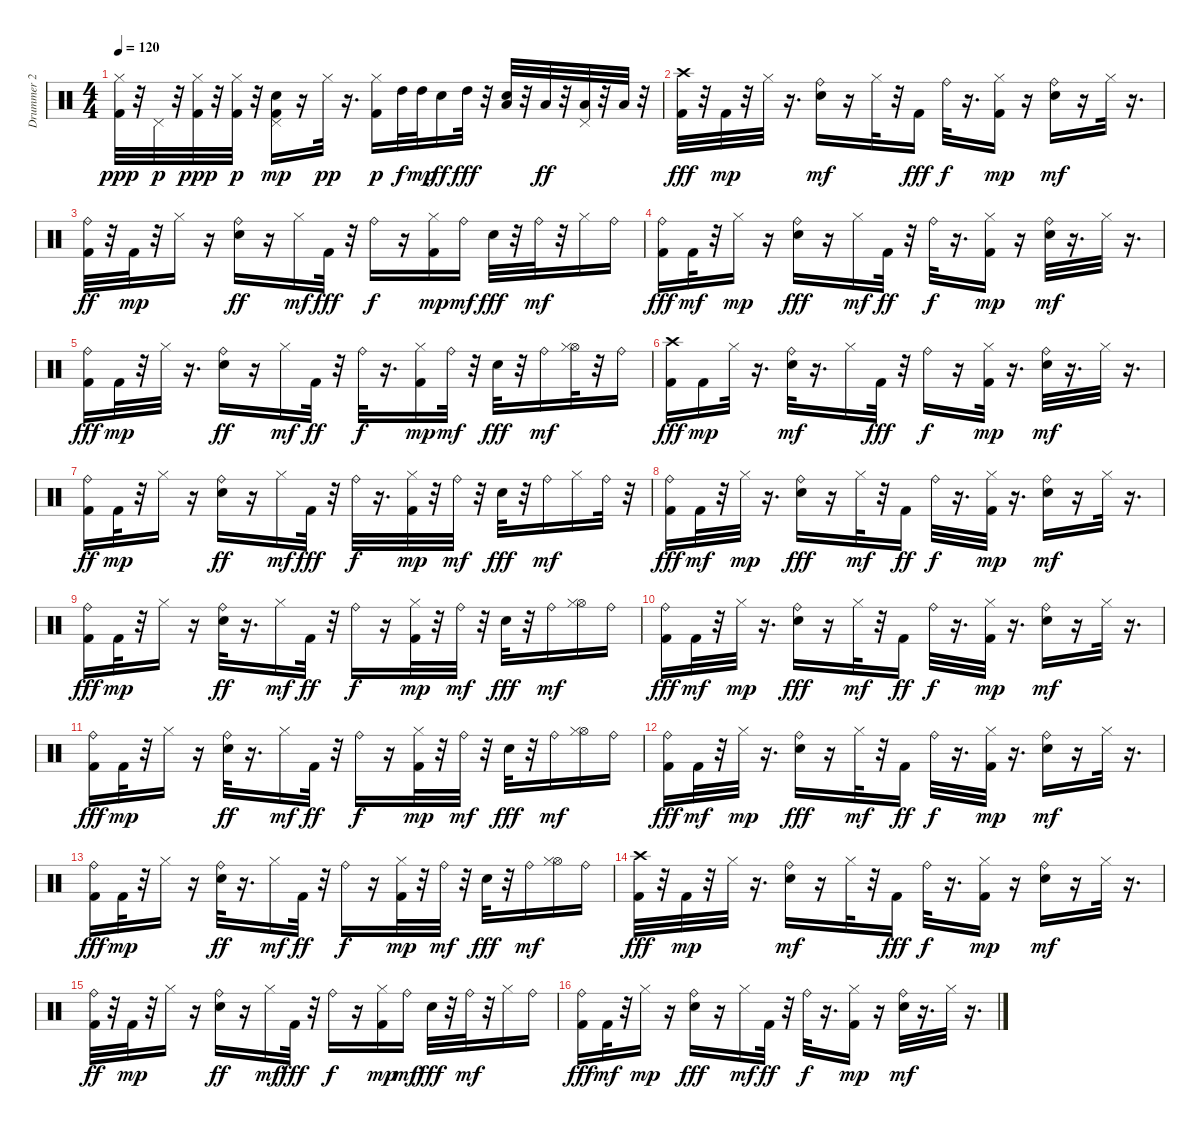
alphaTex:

\track ("Drummer 2" "Drummer 2") {instrument percussion}
\staff {score}
\articulation defaults
\ts (4 4)
\tempo 120
\clef neutral
\ks c
("Kick (hit) 2" "Hi-Hat (closed)").32{dy ppp} r.32 "Pedal Hi-Hat (hit)".32{dy p} r.32 ("Kick (hit) 2" "Hi-Hat (closed)").32{dy ppp} r.32 ("Kick (hit) 2" "Hi-Hat (closed)").32{dy p} r.32 ("Kick (hit) 2" "Snare (hit) 2" "Pedal Hi-Hat (hit)").16{dy mp} r.16 "Hi-Hat (closed)".32{dy pp} r.16{d} ("Kick (hit) 2" "Hi-Hat (closed)").16{dy p} "High Tom (hit)".32{dy f} "High Tom (hit)".32{dy mp} "Snare (hit) 2".16{dy ff} "High Tom (hit)".32{dy fff} r.32 ("Low Tom (hit)" "Snare (hit) 2").32 r.32 "Low Tom (hit)".32{dy ff} r.32 ("Pedal Hi-Hat (hit)" "Low Floor Tom (hit)").32 r.32 "Low Floor Tom (hit)".32 r.32 |
("Kick (hit) 2" "Crash high (hit)").32{dy fff} r.32 "Kick (hit) 2".32{dy mp} r.32 "Hi-Hat (closed)".32 r.16{d} ("Snare (hit) 2" "Ride (bell)").16{dy mf} r.16 "Hi-Hat (closed)".32 r.32 "Kick (hit) 2".16{dy fff} "Ride (bell)".32{dy f} r.16{d} ("Kick (hit) 2" "Hi-Hat (closed)").16{dy mp} r.16 ("Snare (hit) 2" "Ride (bell)").16{dy mf} r.16 "Hi-Hat (closed)".32 r.16{d} |
("Kick (hit) 2" "Ride (bell)").32{dy ff} r.32 "Kick (hit) 2".32{dy mp} r.32 "Hi-Hat (closed)".16 r.16 ("Ride (bell)" "Snare (hit) 2").16{dy ff} r.16 "Hi-Hat (closed)".16{dy mf} "Kick (hit) 2".32{dy fff} r.32 "Ride (bell)".16{dy f} r.16 ("Kick (hit) 2" "Hi-Hat (closed)").16{dy mp} "Ride (bell)".16{dy mf} "Snare (hit) 2".32{dy fff} r.32 "Ride (bell)".32{dy mf} r.32 "Hi-Hat (closed)".16 "Ride (bell)".16 |
("Kick (hit) 2" "Ride (bell)").16{dy fff} "Kick (hit) 2".32{dy mf} r.32 "Hi-Hat (closed)".16{dy mp} r.16 ("Ride (bell)" "Snare (hit) 2").16{dy fff} r.16 "Hi-Hat (closed)".16{dy mf} "Kick (hit) 2".32{dy ff} r.32 "Ride (bell)".32{dy f} r.16{d} ("Kick (hit) 2" "Hi-Hat (closed)").16{dy mp} r.16 ("Snare (hit) 2" "Ride (bell)").32{dy mf} r.16{d} "Hi-Hat (closed)".32 r.16{d} |
("Kick (hit) 2" "Ride (bell)").16{dy fff} "Kick (hit) 2".32{dy mp} r.32 "Hi-Hat (closed)".32 r.16{d} ("Ride (bell)" "Snare (hit) 2").16{dy ff} r.16 "Hi-Hat (closed)".16{dy mf} "Kick (hit) 2".32{dy ff} r.32 "Ride (bell)".32{dy f} r.16{d} ("Kick (hit) 2" "Hi-Hat (closed)").16{dy mp} "Ride (bell)".32{dy mf} r.32 "Snare (hit) 2".32{dy fff} r.32 "Ride (bell)".16{dy mf} ("Hi-Hat (open)" "Hi-Hat (closed)").32 r.32 "Ride (bell)".16 |
("Kick (hit) 2" "Crash high (hit)").16{dy fff} "Kick (hit) 2".16{dy mp} "Hi-Hat (closed)".32 r.16{d} ("Snare (hit) 2" "Ride (bell)").32{dy mf} r.16{d} "Hi-Hat (closed)".16 "Kick (hit) 2".32{dy fff} r.32 "Ride (bell)".16{dy f} r.16 ("Kick (hit) 2" "Hi-Hat (closed)").32{dy mp} r.16{d} ("Snare (hit) 2" "Ride (bell)").32{dy mf} r.16{d} "Hi-Hat (closed)".32 r.16{d} |
("Kick (hit) 2" "Ride (bell)").16{dy ff} "Kick (hit) 2".32{dy mp} r.32 "Hi-Hat (closed)".16 r.16 ("Ride (bell)" "Snare (hit) 2").16{dy ff} r.16 "Hi-Hat (closed)".16{dy mf} "Kick (hit) 2".32{dy fff} r.32 "Ride (bell)".32{dy f} r.16{d} ("Kick (hit) 2" "Hi-Hat (closed)").32{dy mp} r.32 "Ride (bell)".32{dy mf} r.32 "Snare (hit) 2".32{dy fff} r.32 "Ride (bell)".16{dy mf} "Hi-Hat (closed)".16 "Ride (bell)".32 r.32 |
("Kick (hit) 2" "Ride (bell)").16{dy fff} "Kick (hit) 2".32{dy mf} r.32 "Hi-Hat (closed)".32{dy mp} r.16{d} ("Ride (bell)" "Snare (hit) 2").16{dy fff} r.16 "Hi-Hat (closed)".32{dy mf} r.32 "Kick (hit) 2".16{dy ff} "Ride (bell)".32{dy f} r.16{d} ("Kick (hit) 2" "Hi-Hat (closed)").32{dy mp} r.16{d} ("Snare (hit) 2" "Ride (bell)").16{dy mf} r.16 "Hi-Hat (closed)".32 r.16{d} |
("Kick (hit) 2" "Ride (bell)").16{dy fff} "Kick (hit) 2".32{dy mp} r.32 "Hi-Hat (closed)".16 r.16 ("Ride (bell)" "Snare (hit) 2").32{dy ff} r.16{d} "Hi-Hat (closed)".16{dy mf} "Kick (hit) 2".32{dy ff} r.32 "Ride (bell)".16{dy f} r.16 ("Kick (hit) 2" "Hi-Hat (closed)").32{dy mp} r.32 "Ride (bell)".32{dy mf} r.32 "Snare (hit) 2".32{dy fff} r.32 "Ride (bell)".16{dy mf} ("Hi-Hat (open)" "Hi-Hat (closed)").16 "Ride (bell)".16 |
("Kick (hit) 2" "Ride (bell)").16{dy fff} "Kick (hit) 2".32{dy mf} r.32 "Hi-Hat (closed)".32{dy mp} r.16{d} ("Ride (bell)" "Snare (hit) 2").16{dy fff} r.16 "Hi-Hat (closed)".32{dy mf} r.32 "Kick (hit) 2".16{dy ff} "Ride (bell)".32{dy f} r.16{d} ("Kick (hit) 2" "Hi-Hat (closed)").32{dy mp} r.16{d} ("Snare (hit) 2" "Ride (bell)").16{dy mf} r.16 "Hi-Hat (closed)".32 r.16{d} |
("Kick (hit) 2" "Ride (bell)").16{dy fff} "Kick (hit) 2".32{dy mp} r.32 "Hi-Hat (closed)".16 r.16 ("Ride (bell)" "Snare (hit) 2").32{dy ff} r.16{d} "Hi-Hat (closed)".16{dy mf} "Kick (hit) 2".32{dy ff} r.32 "Ride (bell)".16{dy f} r.16 ("Kick (hit) 2" "Hi-Hat (closed)").32{dy mp} r.32 "Ride (bell)".32{dy mf} r.32 "Snare (hit) 2".32{dy fff} r.32 "Ride (bell)".16{dy mf} ("Hi-Hat (open)" "Hi-Hat (closed)").16 "Ride (bell)".16 |
("Kick (hit) 2" "Ride (bell)").16{dy fff} "Kick (hit) 2".32{dy mf} r.32 "Hi-Hat (closed)".32{dy mp} r.16{d} ("Ride (bell)" "Snare (hit) 2").16{dy fff} r.16 "Hi-Hat (closed)".32{dy mf} r.32 "Kick (hit) 2".16{dy ff} "Ride (bell)".32{dy f} r.16{d} ("Kick (hit) 2" "Hi-Hat (closed)").32{dy mp} r.16{d} ("Snare (hit) 2" "Ride (bell)").16{dy mf} r.16 "Hi-Hat (closed)".32 r.16{d} |
("Kick (hit) 2" "Ride (bell)").16{dy fff} "Kick (hit) 2".32{dy mp} r.32 "Hi-Hat (closed)".16 r.16 ("Ride (bell)" "Snare (hit) 2").32{dy ff} r.16{d} "Hi-Hat (closed)".16{dy mf} "Kick (hit) 2".32{dy ff} r.32 "Ride (bell)".16{dy f} r.16 ("Kick (hit) 2" "Hi-Hat (closed)").32{dy mp} r.32 "Ride (bell)".32{dy mf} r.32 "Snare (hit) 2".32{dy fff} r.32 "Ride (bell)".16{dy mf} ("Hi-Hat (open)" "Hi-Hat (closed)").16 "Ride (bell)".16 |
("Kick (hit) 2" "Crash high (hit)").32{dy fff} r.32 "Kick (hit) 2".32{dy mp} r.32 "Hi-Hat (closed)".32 r.16{d} ("Snare (hit) 2" "Ride (bell)").16{dy mf} r.16 "Hi-Hat (closed)".32 r.32 "Kick (hit) 2".16{dy fff} "Ride (bell)".32{dy f} r.16{d} ("Kick (hit) 2" "Hi-Hat (closed)").16{dy mp} r.16 ("Snare (hit) 2" "Ride (bell)").16{dy mf} r.16 "Hi-Hat (closed)".32 r.16{d} |
("Kick (hit) 2" "Ride (bell)").32{dy ff} r.32 "Kick (hit) 2".32{dy mp} r.32 "Hi-Hat (closed)".16 r.16 ("Ride (bell)" "Snare (hit) 2").16{dy ff} r.16 "Hi-Hat (closed)".16{dy mf} "Kick (hit) 2".32{dy fff} r.32 "Ride (bell)".16{dy f} r.16 ("Kick (hit) 2" "Hi-Hat (closed)").16{dy mp} "Ride (bell)".16{dy mf} "Snare (hit) 2".32{dy fff} r.32 "Ride (bell)".32{dy mf} r.32 "Hi-Hat (closed)".16 "Ride (bell)".16 |
("Kick (hit) 2" "Ride (bell)").16{dy fff} "Kick (hit) 2".32{dy mf} r.32 "Hi-Hat (closed)".16{dy mp} r.16 ("Ride (bell)" "Snare (hit) 2").16{dy fff} r.16 "Hi-Hat (closed)".16{dy mf} "Kick (hit) 2".32{dy ff} r.32 "Ride (bell)".32{dy f} r.16{d} ("Kick (hit) 2" "Hi-Hat (closed)").16{dy mp} r.16 ("Snare (hit) 2" "Ride (bell)").32{dy mf} r.16{d} "Hi-Hat (closed)".32 r.16{d}
